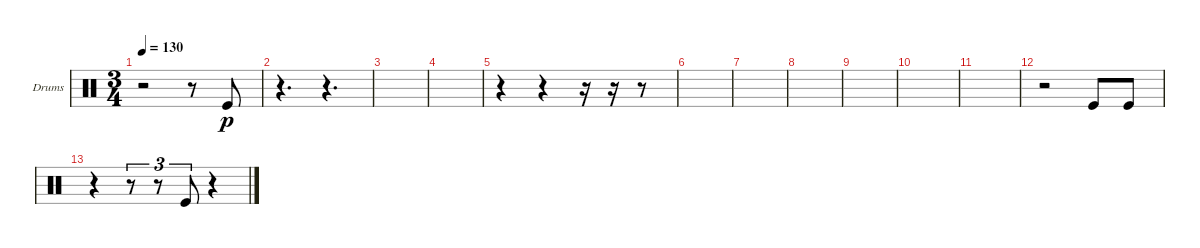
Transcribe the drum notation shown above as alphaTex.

\bracketExtendMode groupsimilarinstruments
\firstSystemTrackNameOrientation horizontal
\otherSystemsTrackNameOrientation horizontal
\track ("Kick" "Drums") {instrument percussion}
\staff {score}
\articulation defaults
\ts (3 4)
\tempo 130
\clef neutral
\ks c
r.2{dy p} r.8 "Kick (hit)".8 |
r.4{d} r.4{d} |
|
|
r.4 r.4 r.16 r.16 r.8 |
|
|
|
|
|
|
r.2 "Kick (hit)".8 "Kick (hit)".8 |
r.4 r.8{tu (3 2)} r.8{tu (3 2)} "Kick (hit)".8{tu (3 2)} r.4
